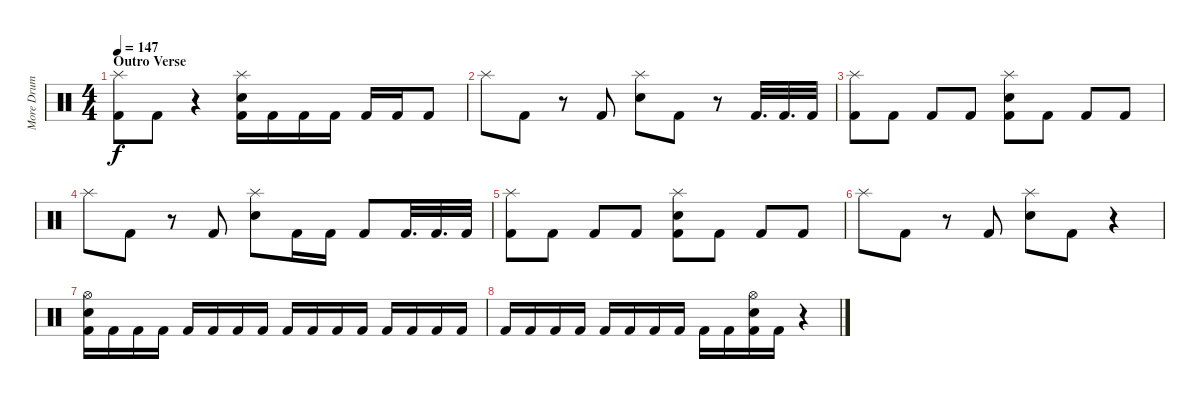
\track ("More Drum Sound" "More Drum ") {instrument percussion}
\staff {score}
\articulation defaults
\ts (4 4)
\section ("" "Outro Verse")
\tempo 147
\clef neutral
\ks c
("Splash (hit)" "Kick (hit) 2").8{dy f} "Kick (hit) 2".8 r.4 ("Splash (hit)" "Snare (hit) 2" "Kick (hit) 2").16 "Kick (hit) 2".16 "Kick (hit) 2".16 "Kick (hit) 2".16 "Kick (hit) 2".16 "Kick (hit) 2".16 "Kick (hit) 2".8 |
"Splash (hit)".8 "Kick (hit) 2".8 r.8 "Kick (hit) 2".8 ("Splash (hit)" "Snare (hit) 2").8 "Kick (hit) 2".8 r.8 "Kick (hit) 2".32{d} "Kick (hit) 2".32{d} "Kick (hit) 2".32 |
("Splash (hit)" "Kick (hit) 2").8 "Kick (hit) 2".8 "Kick (hit) 2".8 "Kick (hit) 2".8 ("Splash (hit)" "Snare (hit) 2" "Kick (hit) 2").8 "Kick (hit) 2".8 "Kick (hit) 2".8 "Kick (hit) 2".8 |
"Splash (hit)".8 "Kick (hit) 2".8 r.8 "Kick (hit) 2".8 ("Splash (hit)" "Snare (hit) 2").8 "Kick (hit) 2".16 "Kick (hit) 2".16 "Kick (hit) 2".8 "Kick (hit) 2".32{d} "Kick (hit) 2".32{d} "Kick (hit) 2".32 |
("Splash (hit)" "Kick (hit) 2").8 "Kick (hit) 2".8 "Kick (hit) 2".8 "Kick (hit) 2".8 ("Splash (hit)" "Snare (hit) 2" "Kick (hit) 2").8 "Kick (hit) 2".8 "Kick (hit) 2".8 "Kick (hit) 2".8 |
"Splash (hit)".8 "Kick (hit) 2".8 r.8 "Kick (hit) 2".8 ("Splash (hit)" "Snare (hit) 2").8 "Kick (hit) 2".8 r.4 |
("Hi-Hat (open)" "Snare (hit) 2" "Kick (hit) 2").16 "Kick (hit) 2".16 "Kick (hit) 2".16 "Kick (hit) 2".16 "Kick (hit) 2".16 "Kick (hit) 2".16 "Kick (hit) 2".16 "Kick (hit) 2".16 "Kick (hit) 2".16 "Kick (hit) 2".16 "Kick (hit) 2".16 "Kick (hit) 2".16 "Kick (hit) 2".16 "Kick (hit) 2".16 "Kick (hit) 2".16 "Kick (hit) 2".16 |
"Kick (hit) 2".16 "Kick (hit) 2".16 "Kick (hit) 2".16 "Kick (hit) 2".16 "Kick (hit) 2".16 "Kick (hit) 2".16 "Kick (hit) 2".16 "Kick (hit) 2".16 "Kick (hit) 2".16 "Kick (hit) 2".16 ("Hi-Hat (open)" "Snare (hit) 2" "Kick (hit) 2").16 "Kick (hit) 2".16 r.4
